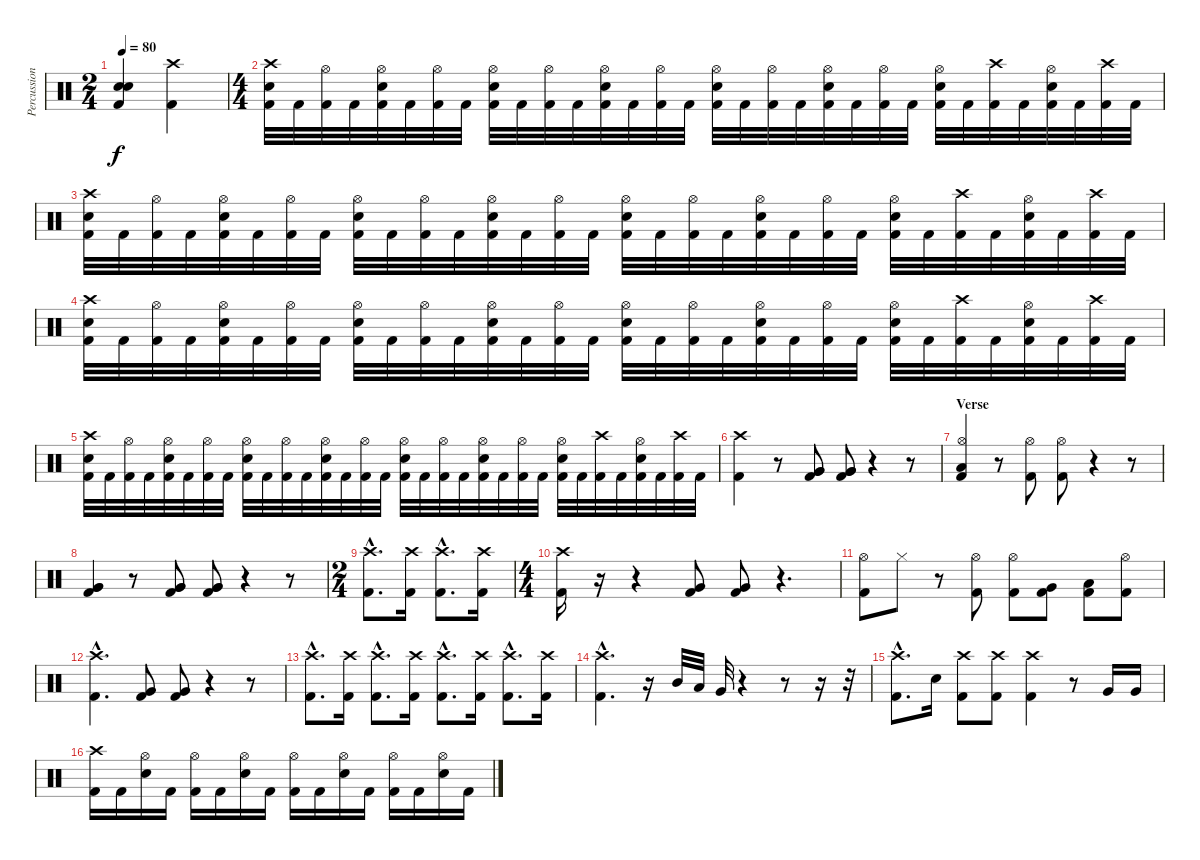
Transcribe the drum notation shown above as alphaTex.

\track ("Percussions" "Percussion") {instrument percussion}
\staff {score}
\articulation defaults
\ts (2 4)
\tempo 80
\clef neutral
\ks c
("Electric Snare (hit)" "Electric Snare (hit)" "Kick (hit) 2").4{dy f} ("Crash high (hit)" "Kick (hit) 2").4 |
\ts (4 4)
("Crash high (hit)" "Electric Snare (hit)" "Kick (hit) 2").32 "Kick (hit) 2".32 ("Hi-Hat (open)" "Kick (hit) 2").32 "Kick (hit) 2".32 ("Hi-Hat (open)" "Electric Snare (hit)" "Kick (hit) 2").32 "Kick (hit) 2".32 ("Hi-Hat (open)" "Kick (hit) 2").32 "Kick (hit) 2".32 ("Hi-Hat (open)" "Electric Snare (hit)" "Kick (hit) 2").32 "Kick (hit) 2".32 ("Hi-Hat (open)" "Kick (hit) 2").32 "Kick (hit) 2".32 ("Hi-Hat (open)" "Electric Snare (hit)" "Kick (hit) 2").32 "Kick (hit) 2".32 ("Hi-Hat (open)" "Kick (hit) 2").32 "Kick (hit) 2".32 ("Hi-Hat (open)" "Electric Snare (hit)" "Kick (hit) 2").32 "Kick (hit) 2".32 ("Hi-Hat (open)" "Kick (hit) 2").32 "Kick (hit) 2".32 ("Hi-Hat (open)" "Electric Snare (hit)" "Kick (hit) 2").32 "Kick (hit) 2".32 ("Hi-Hat (open)" "Kick (hit) 2").32 "Kick (hit) 2".32 ("Hi-Hat (open)" "Electric Snare (hit)" "Kick (hit) 2").32 "Kick (hit) 2".32 ("Crash high (hit)" "Kick (hit) 2").32 "Kick (hit) 2".32 ("Hi-Hat (open)" "Electric Snare (hit)" "Kick (hit) 2").32 "Kick (hit) 2".32 ("Crash high (hit)" "Kick (hit) 2").32 "Kick (hit) 2".32 |
("Crash high (hit)" "Electric Snare (hit)" "Kick (hit) 2").32 "Kick (hit) 2".32 ("Hi-Hat (open)" "Kick (hit) 2").32 "Kick (hit) 2".32 ("Hi-Hat (open)" "Electric Snare (hit)" "Kick (hit) 2").32 "Kick (hit) 2".32 ("Hi-Hat (open)" "Kick (hit) 2").32 "Kick (hit) 2".32 ("Hi-Hat (open)" "Electric Snare (hit)" "Kick (hit) 2").32 "Kick (hit) 2".32 ("Hi-Hat (open)" "Kick (hit) 2").32 "Kick (hit) 2".32 ("Hi-Hat (open)" "Electric Snare (hit)" "Kick (hit) 2").32 "Kick (hit) 2".32 ("Hi-Hat (open)" "Kick (hit) 2").32 "Kick (hit) 2".32 ("Hi-Hat (open)" "Electric Snare (hit)" "Kick (hit) 2").32 "Kick (hit) 2".32 ("Hi-Hat (open)" "Kick (hit) 2").32 "Kick (hit) 2".32 ("Hi-Hat (open)" "Electric Snare (hit)" "Kick (hit) 2").32 "Kick (hit) 2".32 ("Hi-Hat (open)" "Kick (hit) 2").32 "Kick (hit) 2".32 ("Hi-Hat (open)" "Electric Snare (hit)" "Kick (hit) 2").32 "Kick (hit) 2".32 ("Crash high (hit)" "Kick (hit) 2").32 "Kick (hit) 2".32 ("Hi-Hat (open)" "Electric Snare (hit)" "Kick (hit) 2").32 "Kick (hit) 2".32 ("Crash high (hit)" "Kick (hit) 2").32 "Kick (hit) 2".32 |
("Crash high (hit)" "Electric Snare (hit)" "Kick (hit) 2").32 "Kick (hit) 2".32 ("Hi-Hat (open)" "Kick (hit) 2").32 "Kick (hit) 2".32 ("Hi-Hat (open)" "Electric Snare (hit)" "Kick (hit) 2").32 "Kick (hit) 2".32 ("Hi-Hat (open)" "Kick (hit) 2").32 "Kick (hit) 2".32 ("Hi-Hat (open)" "Electric Snare (hit)" "Kick (hit) 2").32 "Kick (hit) 2".32 ("Hi-Hat (open)" "Kick (hit) 2").32 "Kick (hit) 2".32 ("Hi-Hat (open)" "Electric Snare (hit)" "Kick (hit) 2").32 "Kick (hit) 2".32 ("Hi-Hat (open)" "Kick (hit) 2").32 "Kick (hit) 2".32 ("Hi-Hat (open)" "Electric Snare (hit)" "Kick (hit) 2").32 "Kick (hit) 2".32 ("Hi-Hat (open)" "Kick (hit) 2").32 "Kick (hit) 2".32 ("Hi-Hat (open)" "Electric Snare (hit)" "Kick (hit) 2").32 "Kick (hit) 2".32 ("Hi-Hat (open)" "Kick (hit) 2").32 "Kick (hit) 2".32 ("Hi-Hat (open)" "Electric Snare (hit)" "Kick (hit) 2").32 "Kick (hit) 2".32 ("Crash high (hit)" "Kick (hit) 2").32 "Kick (hit) 2".32 ("Hi-Hat (open)" "Electric Snare (hit)" "Kick (hit) 2").32 "Kick (hit) 2".32 ("Crash high (hit)" "Kick (hit) 2").32 "Kick (hit) 2".32 |
("Crash high (hit)" "Electric Snare (hit)" "Kick (hit) 2").32 "Kick (hit) 2".32 ("Hi-Hat (open)" "Kick (hit) 2").32 "Kick (hit) 2".32 ("Hi-Hat (open)" "Electric Snare (hit)" "Kick (hit) 2").32 "Kick (hit) 2".32 ("Hi-Hat (open)" "Kick (hit) 2").32 "Kick (hit) 2".32 ("Hi-Hat (open)" "Electric Snare (hit)" "Kick (hit) 2").32 "Kick (hit) 2".32 ("Hi-Hat (open)" "Kick (hit) 2").32 "Kick (hit) 2".32 ("Hi-Hat (open)" "Electric Snare (hit)" "Kick (hit) 2").32 "Kick (hit) 2".32 ("Hi-Hat (open)" "Kick (hit) 2").32 "Kick (hit) 2".32 ("Hi-Hat (open)" "Electric Snare (hit)" "Kick (hit) 2").32 "Kick (hit) 2".32 ("Hi-Hat (open)" "Kick (hit) 2").32 "Kick (hit) 2".32 ("Hi-Hat (open)" "Electric Snare (hit)" "Kick (hit) 2").32 "Kick (hit) 2".32 ("Hi-Hat (open)" "Kick (hit) 2").32 "Kick (hit) 2".32 ("Hi-Hat (open)" "Electric Snare (hit)" "Kick (hit) 2").32 "Kick (hit) 2".32 ("Crash high (hit)" "Kick (hit) 2").32 "Kick (hit) 2".32 ("Hi-Hat (open)" "Electric Snare (hit)" "Kick (hit) 2").32 "Kick (hit) 2".32 ("Crash high (hit)" "Kick (hit) 2").32 "Kick (hit) 2".32 |
("Crash high (hit)" "Kick (hit) 2").4 r.8 ("Very Low Tom (hit)" "Very Low Tom (hit)" "Kick (hit) 2").8 ("Very Low Tom (hit)" "Very Low Tom (hit)" "Kick (hit) 2").8 r.4 r.8 |
\section ("" "Verse")
("Hi-Hat (open)" "Low Floor Tom (hit)" "Kick (hit) 2").4 r.8 ("Hi-Hat (open)" "Kick (hit) 2").8 ("Hi-Hat (open)" "Kick (hit) 2").8 r.4 r.8 |
("Very Low Tom (hit)" "Very Low Tom (hit)" "Kick (hit) 2").4 r.8 ("Very Low Tom (hit)" "Very Low Tom (hit)" "Kick (hit) 2").8 ("Very Low Tom (hit)" "Very Low Tom (hit)" "Kick (hit) 2").8 r.4 r.8 |
\ts (2 4)
("Crash high (hit)"{hac} "Kick (hit) 2"{hac}).8{d} ("Crash high (hit)" "Kick (hit) 2").16 ("Crash high (hit)"{hac} "Kick (hit) 2"{hac}).8{d} ("Crash high (hit)" "Kick (hit) 2").16 |
\ts (4 4)
("Crash high (hit)" "Kick (hit) 2").16 r.16 r.4 ("Very Low Tom (hit)" "Kick (hit) 2").8 ("Very Low Tom (hit)" "Kick (hit) 2").8 r.4{d} |
("Hi-Hat (open)" "Kick (hit) 2").8 "Hi-Hat (closed)".8 r.8 ("Hi-Hat (open)" "Kick (hit) 2").8 ("Hi-Hat (open)" "Kick (hit) 2").8 ("Very Low Tom (hit)" "Kick (hit) 2").8 ("Low Tom (hit)" "Kick (hit) 2").8 ("Hi-Hat (open)" "Kick (hit) 2").8 |
("Crash high (hit)"{hac} "Kick (hit) 2"{hac}).4{d} ("Very Low Tom (hit)" "Kick (hit) 2").8 ("Very Low Tom (hit)" "Kick (hit) 2").8 r.4 r.8 |
("Crash high (hit)"{hac} "Kick (hit) 2"{hac}).8{d} ("Crash high (hit)" "Kick (hit) 2").16 ("Crash high (hit)"{hac} "Kick (hit) 2"{hac}).8{d} ("Crash high (hit)" "Kick (hit) 2").16 ("Crash high (hit)"{hac} "Kick (hit) 2"{hac}).8{d} ("Crash high (hit)" "Kick (hit) 2").16 ("Crash high (hit)"{hac} "Kick (hit) 2"{hac}).8{d} ("Crash high (hit)" "Kick (hit) 2").16 |
("Crash high (hit)"{hac} "Kick (hit) 2"{hac}).4{d} r.16 "Mid Tom (hit)".32 "Low Tom (hit)".32 "Very Low Tom (hit)".32 r.4 r.8 r.16 r.32 |
("Crash high (hit)"{hac} "Kick (hit) 2"{hac}).8{d} "Electric Snare (hit)".16 ("Crash high (hit)" "Kick (hit) 2").8 ("Crash high (hit)" "Kick (hit) 2").8 ("Crash high (hit)" "Kick (hit) 2").4 r.8 "Very Low Tom (hit)".16 "Very Low Tom (hit)".16 |
("Crash high (hit)" "Kick (hit) 2").16 "Kick (hit) 2".16 ("Hi-Hat (open)" "Electric Snare (hit)").16 "Kick (hit) 2".16 ("Hi-Hat (open)" "Kick (hit) 2").16 "Kick (hit) 2".16 ("Hi-Hat (open)" "Electric Snare (hit)").16 "Kick (hit) 2".16 ("Hi-Hat (open)" "Kick (hit) 2").16 "Kick (hit) 2".16 ("Hi-Hat (open)" "Electric Snare (hit)").16 "Kick (hit) 2".16 ("Hi-Hat (open)" "Kick (hit) 2").16 "Kick (hit) 2".16 ("Hi-Hat (open)" "Electric Snare (hit)").16 "Kick (hit) 2".16
